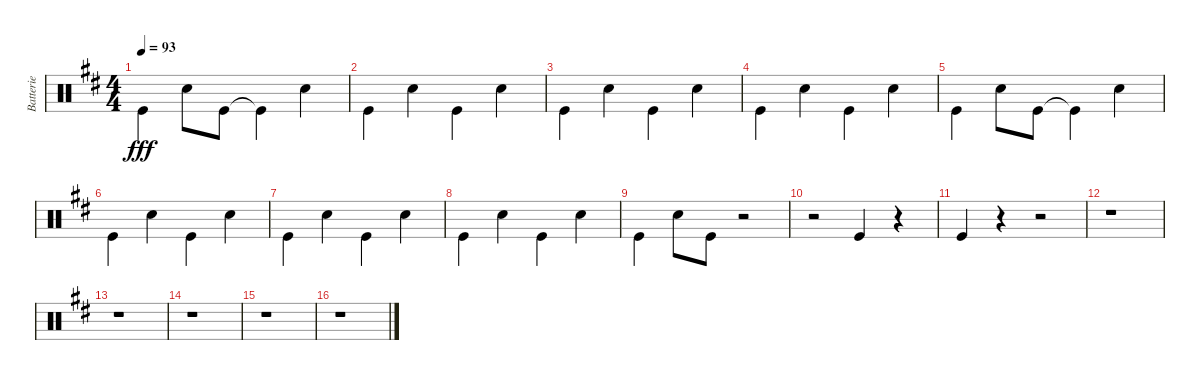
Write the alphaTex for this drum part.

\track ("Batterie" "Batterie") {instrument percussion}
\staff {score}
\articulation defaults
\ts (4 4)
\tempo 93
\clef neutral
\ks d "Kick (hit)".4{dy fff beam Down} "Electric Snare (hit)".8{beam Down} "Kick (hit)".8{beam Down} "Kick (hit)"{t}.4{beam Down} "Electric Snare (hit)".4
|
"Kick (hit)".4{beam Down} "Electric Snare (hit)".4 "Kick (hit)".4{beam Down} "Electric Snare (hit)".4 |
"Kick (hit)".4{beam Down} "Electric Snare (hit)".4 "Kick (hit)".4{beam Down} "Electric Snare (hit)".4 |
"Kick (hit)".4{beam Down} "Electric Snare (hit)".4 "Kick (hit)".4{beam Down} "Electric Snare (hit)".4 |
"Kick (hit)".4{beam Down} "Electric Snare (hit)".8{beam Down} "Kick (hit)".8{beam Down} "Kick (hit)"{t}.4{beam Down} "Electric Snare (hit)".4 |
"Kick (hit)".4{beam Down} "Electric Snare (hit)".4 "Kick (hit)".4{beam Down} "Electric Snare (hit)".4 |
"Kick (hit)".4{beam Down} "Electric Snare (hit)".4 "Kick (hit)".4{beam Down} "Electric Snare (hit)".4 |
"Kick (hit)".4{beam Down} "Electric Snare (hit)".4 "Kick (hit)".4{beam Down} "Electric Snare (hit)".4 |
"Kick (hit)".4{beam Down} "Electric Snare (hit)".8{beam Down} "Kick (hit)".8{beam Down} r.2 |
r.2 "Kick (hit)".4 r.4 |
"Kick (hit)".4 r.4 r.2 |
r.1 |
r.1 |
r.1 |
r.1 |
r.1
